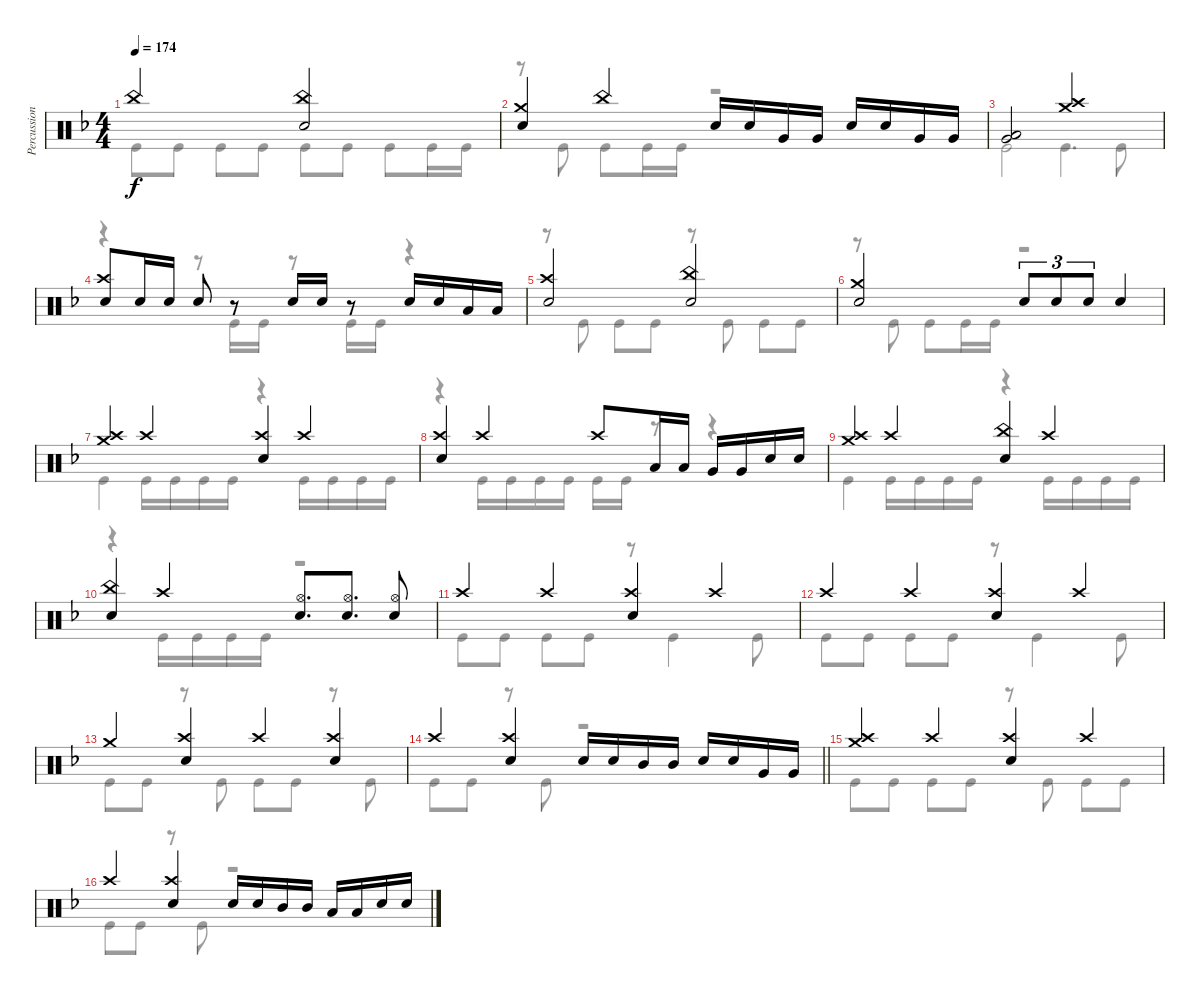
\track ("Percussion" "Percussion") {instrument percussion}
\staff {score}
\articulation defaults
\voice
\ts (4 4)
\tempo 174
\clef neutral
\ks dminor "China (hit)".2{dy f}
("China (hit)" "Electric Snare (hit)").2 |
("Crash medium (hit)" "Electric Snare (hit)").4 "China (hit)".4 "Electric Snare (hit)".16 "Electric Snare (hit)".16 "Very Low Tom (hit)".16 "Very Low Tom (hit)".16 "Electric Snare (hit)".16 "Electric Snare (hit)".16 "Very Low Tom (hit)".16 "Very Low Tom (hit)".16 |
("Low Tom (hit)" "Very Low Tom (hit)").2 ("Crash medium (hit)" "Crash high (hit)").2 |
("Crash high (hit)" "Electric Snare (hit)").8 "Electric Snare (hit)".16 "Electric Snare (hit)".16 "Electric Snare (hit)".8 r.8 "Electric Snare (hit)".16 "Electric Snare (hit)".16 r.8 "Electric Snare (hit)".16 "Electric Snare (hit)".16 "Low Tom (hit)".16 "Low Tom (hit)".16 |
("Crash high (hit)" "Electric Snare (hit)").2 ("China (hit)" "Electric Snare (hit)").2 |
("Crash medium (hit)" "Electric Snare (hit)").2 "Electric Snare (hit)".8{tu (3 2)} "Electric Snare (hit)".8{tu (3 2)} "Electric Snare (hit)".8{tu (3 2)} "Electric Snare (hit)".4 |
("Crash medium (hit)" "Crash high (hit)").4 "Crash high (hit)".4 ("Crash high (hit)" "Electric Snare (hit)").4 "Crash high (hit)".4 |
("Crash high (hit)" "Electric Snare (hit)").4 "Crash high (hit)".4 "Crash high (hit)".8 "Low Tom (hit)".16 "Low Tom (hit)".16 "Very Low Tom (hit)".16 "Very Low Tom (hit)".16 "Electric Snare (hit)".16 "Electric Snare (hit)".16 |
("Crash medium (hit)" "Crash high (hit)").4 "Crash high (hit)".4 ("China (hit)" "Electric Snare (hit)").4 "Crash high (hit)".4 |
("China (hit)" "Electric Snare (hit)").4 "Crash high (hit)".4 ("Hi-Hat (open)" "Electric Snare (hit)").8{d} ("Hi-Hat (open)" "Electric Snare (hit)").8{d} ("Hi-Hat (open)" "Electric Snare (hit)").8 |
"Crash high (hit)".4 "Crash high (hit)".4 ("Crash high (hit)" "Electric Snare (hit)").4 "Crash high (hit)".4 |
"Crash high (hit)".4 "Crash high (hit)".4 ("Crash high (hit)" "Electric Snare (hit)").4 "Crash high (hit)".4 |
"Crash medium (hit)".4 ("Crash high (hit)" "Electric Snare (hit)").4 "Crash high (hit)".4 ("Crash high (hit)" "Electric Snare (hit)").4 |
\barLineRight lightlight "Crash high (hit)".4
("Crash high (hit)" "Electric Snare (hit)").4 "Electric Snare (hit)".16 "Electric Snare (hit)".16 "Mid Tom (hit)".16 "Mid Tom (hit)".16 "Electric Snare (hit)".16 "Electric Snare (hit)".16 "Very Low Tom (hit)".16 "Very Low Tom (hit)".16 |
\section ("" "")
("Crash medium (hit)" "Crash high (hit)").4 "Crash high (hit)".4 ("Crash high (hit)" "Electric Snare (hit)").4 "Crash high (hit)".4 |
"Crash high (hit)".4 ("Crash high (hit)" "Electric Snare (hit)").4 "Electric Snare (hit)".16 "Electric Snare (hit)".16 "Mid Tom (hit)".16 "Mid Tom (hit)".16 "Low Tom (hit)".16 "Low Tom (hit)".16 "Electric Snare (hit)".16 "Electric Snare (hit)".16
\voice
\clef neutral
\ottava regular
\simile none
\ks dminor "Kick (hit)".8{dy f} "Kick (hit)".8 "Kick (hit)".8 "Kick (hit)".8 "Kick (hit)".8 "Kick (hit)".8 "Kick (hit)".8 "Kick (hit)".16 "Kick (hit)".16
|
r.8 "Kick (hit)".8 "Kick (hit)".8 "Kick (hit)".16 "Kick (hit)".16 r.2 |
"Kick (hit)".2 "Kick (hit)".4{d} "Kick (hit)".8 |
r.4 r.8 "Kick (hit)".16 "Kick (hit)".16 r.8 "Kick (hit)".16 "Kick (hit)".16 r.4 |
r.8 "Kick (hit)".8 "Kick (hit)".8 "Kick (hit)".8 r.8 "Kick (hit)".8 "Kick (hit)".8 "Kick (hit)".8 |
r.8 "Kick (hit)".8 "Kick (hit)".8 "Kick (hit)".16 "Kick (hit)".16 r.2 |
"Kick (hit)".4 "Kick (hit)".16 "Kick (hit)".16 "Kick (hit)".16 "Kick (hit)".16 r.4 "Kick (hit)".16 "Kick (hit)".16 "Kick (hit)".16 "Kick (hit)".16 |
r.4 "Kick (hit)".16 "Kick (hit)".16 "Kick (hit)".16 "Kick (hit)".16 "Kick (hit)".16 "Kick (hit)".16 r.8 r.4 |
"Kick (hit)".4 "Kick (hit)".16 "Kick (hit)".16 "Kick (hit)".16 "Kick (hit)".16 r.4 "Kick (hit)".16 "Kick (hit)".16 "Kick (hit)".16 "Kick (hit)".16 |
r.4 "Kick (hit)".16 "Kick (hit)".16 "Kick (hit)".16 "Kick (hit)".16 r.2 |
"Kick (hit)".8 "Kick (hit)".8 "Kick (hit)".8 "Kick (hit)".8 r.8 "Kick (hit)".4 "Kick (hit)".8 |
"Kick (hit)".8 "Kick (hit)".8 "Kick (hit)".8 "Kick (hit)".8 r.8 "Kick (hit)".4 "Kick (hit)".8 |
"Kick (hit)".8 "Kick (hit)".8 r.8 "Kick (hit)".8 "Kick (hit)".8 "Kick (hit)".8 r.8 "Kick (hit)".8 |
\barLineRight lightlight "Kick (hit)".8 "Kick (hit)".8
r.8 "Kick (hit)".8 r.2 |
"Kick (hit)".8 "Kick (hit)".8 "Kick (hit)".8 "Kick (hit)".8 r.8 "Kick (hit)".8 "Kick (hit)".8 "Kick (hit)".8 |
"Kick (hit)".8 "Kick (hit)".8 r.8 "Kick (hit)".8 r.2
